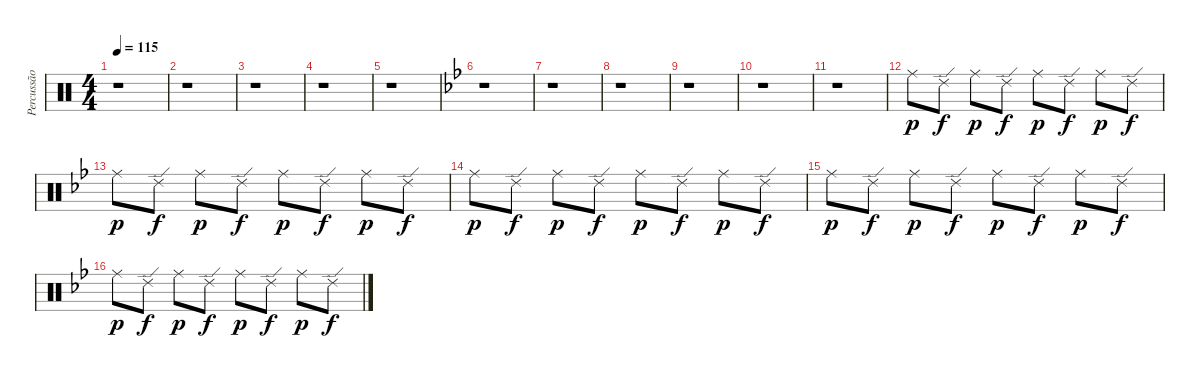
\track ("Percussão" "Percussão") {instrument percussion}
\staff {score}
\articulation defaults
\ts (4 4)
\tempo 115
\clef neutral
\ks c
r.1{dy pp} |
r.1 |
r.1 |
r.1 |
r.1 |
\ks bb
r.1 |
r.1 |
r.1 |
r.1 |
r.1 |
r.1 |
"Ride (middle)".8{dy p} "Ride (edge) 2".8{dy f} "Ride (middle)".8{dy p} "Ride (edge) 2".8{dy f} "Ride (middle)".8{dy p} "Ride (edge) 2".8{dy f} "Ride (middle)".8{dy p} "Ride (edge) 2".8{dy f} |
"Ride (middle)".8{dy p} "Ride (edge) 2".8{dy f} "Ride (middle)".8{dy p} "Ride (edge) 2".8{dy f} "Ride (middle)".8{dy p} "Ride (edge) 2".8{dy f} "Ride (middle)".8{dy p} "Ride (edge) 2".8{dy f} |
"Ride (middle)".8{dy p} "Ride (edge) 2".8{dy f} "Ride (middle)".8{dy p} "Ride (edge) 2".8{dy f} "Ride (middle)".8{dy p} "Ride (edge) 2".8{dy f} "Ride (middle)".8{dy p} "Ride (edge) 2".8{dy f} |
"Ride (middle)".8{dy p} "Ride (edge) 2".8{dy f} "Ride (middle)".8{dy p} "Ride (edge) 2".8{dy f} "Ride (middle)".8{dy p} "Ride (edge) 2".8{dy f} "Ride (middle)".8{dy p} "Ride (edge) 2".8{dy f} |
"Ride (middle)".8{dy p} "Ride (edge) 2".8{dy f} "Ride (middle)".8{dy p} "Ride (edge) 2".8{dy f} "Ride (middle)".8{dy p} "Ride (edge) 2".8{dy f} "Ride (middle)".8{dy p} "Ride (edge) 2".8{dy f}
